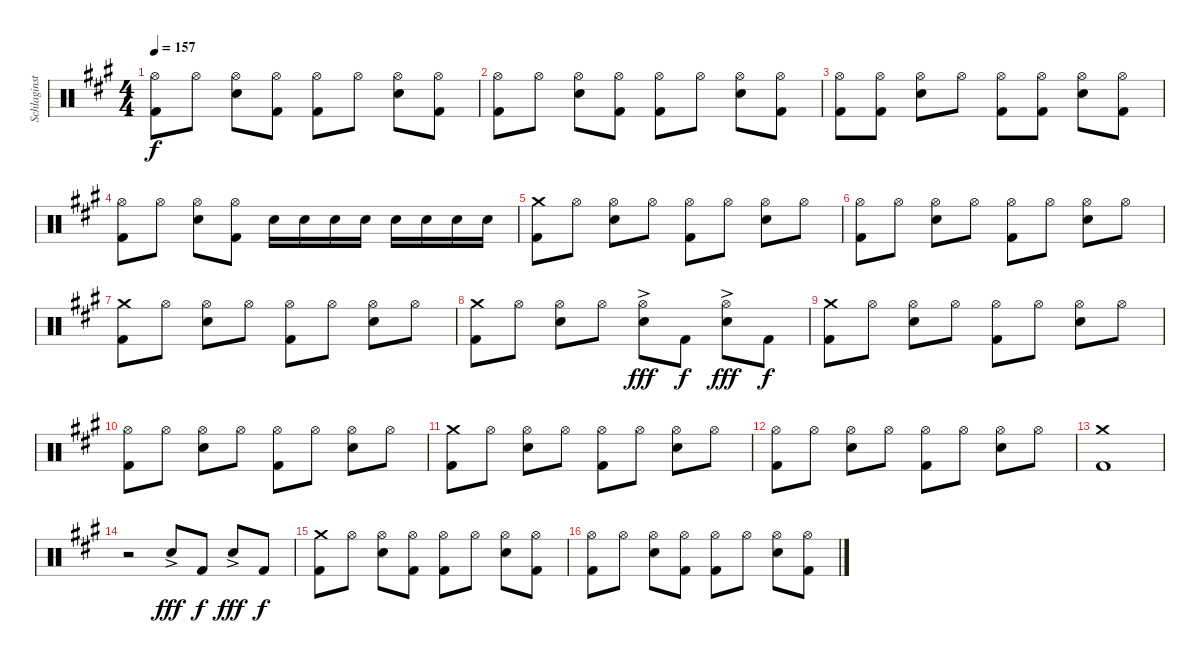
\track ("Schlaginstrumente - Auswahl" "Schlaginst") {instrument percussion}
\staff {score}
\articulation defaults
\ts (4 4)
\tempo 157
\clef neutral
\ks f#minor
("Hi-Hat (open)" "Kick (hit) 2").8{dy f} "Hi-Hat (open)".8 ("Hi-Hat (open)" "Electric Snare (hit)").8 ("Hi-Hat (open)" "Kick (hit) 2").8 ("Hi-Hat (open)" "Kick (hit) 2").8 "Hi-Hat (open)".8 ("Hi-Hat (open)" "Electric Snare (hit)").8 ("Hi-Hat (open)" "Kick (hit) 2").8 |
("Hi-Hat (open)" "Kick (hit) 2").8 "Hi-Hat (open)".8 ("Hi-Hat (open)" "Electric Snare (hit)").8 ("Hi-Hat (open)" "Kick (hit) 2").8 ("Hi-Hat (open)" "Kick (hit) 2").8 "Hi-Hat (open)".8 ("Hi-Hat (open)" "Electric Snare (hit)").8 ("Hi-Hat (open)" "Kick (hit) 2").8 |
("Hi-Hat (open)" "Kick (hit) 2").8 ("Hi-Hat (open)" "Kick (hit) 2").8 ("Hi-Hat (open)" "Electric Snare (hit)").8 "Hi-Hat (open)".8 ("Hi-Hat (open)" "Kick (hit) 2").8 ("Hi-Hat (open)" "Kick (hit) 2").8 ("Hi-Hat (open)" "Electric Snare (hit)").8 ("Hi-Hat (open)" "Kick (hit) 2").8 |
("Hi-Hat (open)" "Kick (hit) 2").8 "Hi-Hat (open)".8 ("Hi-Hat (open)" "Electric Snare (hit)").8 ("Hi-Hat (open)" "Kick (hit) 2").8 "Electric Snare (hit)".16 "Electric Snare (hit)".16 "Electric Snare (hit)".16 "Electric Snare (hit)".16 "Electric Snare (hit)".16 "Electric Snare (hit)".16 "Electric Snare (hit)".16 "Electric Snare (hit)".16 |
("Crash medium (hit)" "Kick (hit) 2").8 "Hi-Hat (open)".8 ("Hi-Hat (open)" "Electric Snare (hit)").8 "Hi-Hat (open)".8 ("Hi-Hat (open)" "Kick (hit) 2").8 "Hi-Hat (open)".8 ("Hi-Hat (open)" "Electric Snare (hit)").8 "Hi-Hat (open)".8 |
("Hi-Hat (open)" "Kick (hit) 2").8 "Hi-Hat (open)".8 ("Hi-Hat (open)" "Electric Snare (hit)").8 "Hi-Hat (open)".8 ("Hi-Hat (open)" "Kick (hit) 2").8 "Hi-Hat (open)".8 ("Hi-Hat (open)" "Electric Snare (hit)").8 "Hi-Hat (open)".8 |
("Crash medium (hit)" "Kick (hit) 2").8 "Hi-Hat (open)".8 ("Hi-Hat (open)" "Electric Snare (hit)").8 "Hi-Hat (open)".8 ("Hi-Hat (open)" "Kick (hit) 2").8 "Hi-Hat (open)".8 ("Hi-Hat (open)" "Electric Snare (hit)").8 "Hi-Hat (open)".8 |
("Crash medium (hit)" "Kick (hit) 2").8 "Hi-Hat (open)".8 ("Hi-Hat (open)" "Electric Snare (hit)").8 "Hi-Hat (open)".8 ("Hi-Hat (open)" "Electric Snare (hit)"{ac}).8{dy fff} "Kick (hit) 2".8{dy f} ("Hi-Hat (open)" "Electric Snare (hit)"{ac}).8{dy fff} "Kick (hit) 2".8{dy f} |
("Crash medium (hit)" "Kick (hit) 2").8 "Hi-Hat (open)".8 ("Hi-Hat (open)" "Electric Snare (hit)").8 "Hi-Hat (open)".8 ("Hi-Hat (open)" "Kick (hit) 2").8 "Hi-Hat (open)".8 ("Hi-Hat (open)" "Electric Snare (hit)").8 "Hi-Hat (open)".8 |
("Hi-Hat (open)" "Kick (hit) 2").8 "Hi-Hat (open)".8 ("Hi-Hat (open)" "Electric Snare (hit)").8 "Hi-Hat (open)".8 ("Hi-Hat (open)" "Kick (hit) 2").8 "Hi-Hat (open)".8 ("Hi-Hat (open)" "Electric Snare (hit)").8 "Hi-Hat (open)".8 |
("Crash medium (hit)" "Kick (hit) 2").8 "Hi-Hat (open)".8 ("Hi-Hat (open)" "Electric Snare (hit)").8 "Hi-Hat (open)".8 ("Hi-Hat (open)" "Kick (hit) 2").8 "Hi-Hat (open)".8 ("Hi-Hat (open)" "Electric Snare (hit)").8 "Hi-Hat (open)".8 |
("Hi-Hat (open)" "Kick (hit) 2").8 "Hi-Hat (open)".8 ("Hi-Hat (open)" "Electric Snare (hit)").8 "Hi-Hat (open)".8 ("Hi-Hat (open)" "Kick (hit) 2").8 "Hi-Hat (open)".8 ("Hi-Hat (open)" "Electric Snare (hit)").8 "Hi-Hat (open)".8 |
("Crash medium (hit)" "Kick (hit) 2").1 |
r.2 "Electric Snare (hit)"{ac}.8{dy fff} "Kick (hit) 2".8{dy f} "Electric Snare (hit)"{ac}.8{dy fff} "Kick (hit) 2".8{dy f} |
("Crash medium (hit)" "Kick (hit) 2").8 "Hi-Hat (open)".8 ("Hi-Hat (open)" "Electric Snare (hit)").8 ("Hi-Hat (open)" "Kick (hit) 2").8 ("Hi-Hat (open)" "Kick (hit) 2").8 "Hi-Hat (open)".8 ("Hi-Hat (open)" "Electric Snare (hit)").8 ("Hi-Hat (open)" "Kick (hit) 2").8 |
("Hi-Hat (open)" "Kick (hit) 2").8 "Hi-Hat (open)".8 ("Hi-Hat (open)" "Electric Snare (hit)").8 ("Hi-Hat (open)" "Kick (hit) 2").8 ("Hi-Hat (open)" "Kick (hit) 2").8 "Hi-Hat (open)".8 ("Hi-Hat (open)" "Electric Snare (hit)").8 ("Hi-Hat (open)" "Kick (hit) 2").8
